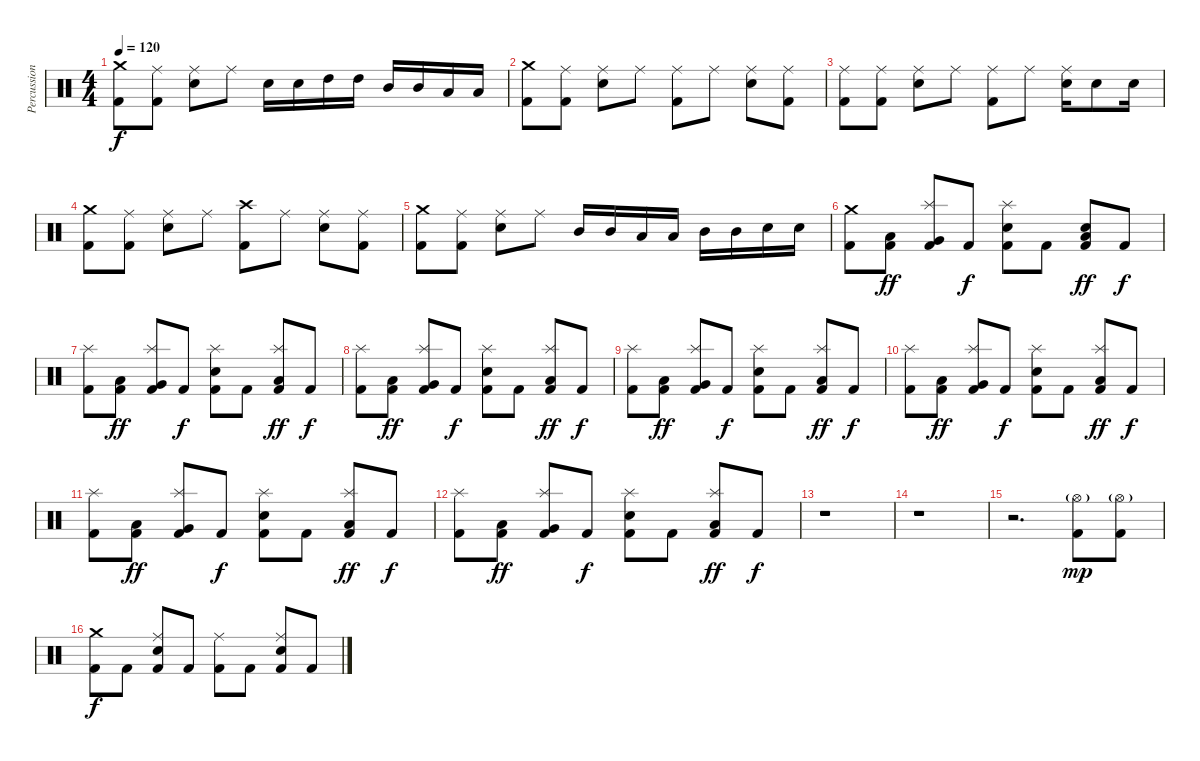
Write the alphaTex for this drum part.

\track ("Percussions" "Percussion") {instrument percussion}
\staff {score}
\articulation defaults
\ts (4 4)
\tempo 120
\clef neutral
\ks c
("Crash medium (hit)" "Kick (hit) 2").8{dy f} ("Ride (middle)" "Kick (hit) 2").8 ("Ride (middle)" "Electric Snare (hit)").8 "Ride (middle)".8 "Electric Snare (hit)".16 "Electric Snare (hit)".16 "High Tom (hit)".16 "High Tom (hit)".16 "Mid Tom (hit)".16 "Mid Tom (hit)".16 "Low Tom (hit)".16 "Low Tom (hit)".16 |
("Crash medium (hit)" "Kick (hit) 2").8 ("Ride (middle)" "Kick (hit) 2").8 ("Ride (middle)" "Electric Snare (hit)").8 "Ride (middle)".8 ("Ride (middle)" "Kick (hit) 2").8 "Ride (middle)".8 ("Ride (middle)" "Electric Snare (hit)").8 ("Ride (middle)" "Kick (hit) 2").8 |
("Ride (middle)" "Kick (hit) 2").8 ("Ride (middle)" "Kick (hit) 2").8 ("Ride (middle)" "Electric Snare (hit)").8 "Ride (middle)".8 ("Ride (middle)" "Kick (hit) 2").8 "Ride (middle)".8 ("Ride (middle)" "Electric Snare (hit)").16 "Electric Snare (hit)".8 "Electric Snare (hit)".16 |
("Crash medium (hit)" "Kick (hit) 2").8 ("Ride (middle)" "Kick (hit) 2").8 ("Ride (middle)" "Electric Snare (hit)").8 "Ride (middle)".8 ("Crash high (hit)" "Kick (hit) 2").8 "Ride (middle)".8 ("Ride (middle)" "Electric Snare (hit)").8 ("Ride (middle)" "Kick (hit) 2").8 |
("Crash medium (hit)" "Kick (hit) 2").8 ("Ride (middle)" "Kick (hit) 2").8 ("Ride (middle)" "Electric Snare (hit)").8 "Ride (middle)".8 "Mid Tom (hit)".16 "Mid Tom (hit)".16 "Low Tom (hit)".16 "Low Tom (hit)".16 "Mid Tom (hit)".16 "Mid Tom (hit)".16 "Electric Snare (hit)".16 "Electric Snare (hit)".16 |
("Crash medium (hit)" "Kick (hit) 2").8 ("Low Tom (hit)" "Kick (hit) 2").8{dy ff} ("Splash (hit)" "Very Low Tom (hit)" "Kick (hit) 2").8 "Kick (hit) 2".8{dy f} ("Splash (hit)" "Electric Snare (hit)" "Kick (hit) 2").8 "Kick (hit) 2".8 ("Snare (hit)" "Low Floor Tom (hit)" "Kick (hit) 2").8{dy ff} "Kick (hit) 2".8{dy f} |
("Splash (hit)" "Kick (hit) 2").8 ("Low Tom (hit)" "Kick (hit) 2").8{dy ff} ("Splash (hit)" "Very Low Tom (hit)" "Kick (hit) 2").8 "Kick (hit) 2".8{dy f} ("Splash (hit)" "Electric Snare (hit)" "Kick (hit) 2").8 "Kick (hit) 2".8 ("Splash (hit)" "Low Floor Tom (hit)" "Kick (hit) 2").8{dy ff} "Kick (hit) 2".8{dy f} |
("Splash (hit)" "Kick (hit) 2").8 ("Low Tom (hit)" "Kick (hit) 2").8{dy ff} ("Splash (hit)" "Very Low Tom (hit)" "Kick (hit) 2").8 "Kick (hit) 2".8{dy f} ("Splash (hit)" "Electric Snare (hit)" "Kick (hit) 2").8 "Kick (hit) 2".8 ("Splash (hit)" "Low Floor Tom (hit)" "Kick (hit) 2").8{dy ff} "Kick (hit) 2".8{dy f} |
("Splash (hit)" "Kick (hit) 2").8 ("Low Tom (hit)" "Kick (hit) 2").8{dy ff} ("Splash (hit)" "Very Low Tom (hit)" "Kick (hit) 2").8 "Kick (hit) 2".8{dy f} ("Splash (hit)" "Electric Snare (hit)" "Kick (hit) 2").8 "Kick (hit) 2".8 ("Splash (hit)" "Low Floor Tom (hit)" "Kick (hit) 2").8{dy ff} "Kick (hit) 2".8{dy f} |
("Splash (hit)" "Kick (hit) 2").8 ("Low Tom (hit)" "Kick (hit) 2").8{dy ff} ("Splash (hit)" "Very Low Tom (hit)" "Kick (hit) 2").8 "Kick (hit) 2".8{dy f} ("Splash (hit)" "Electric Snare (hit)" "Kick (hit) 2").8 "Kick (hit) 2".8 ("Splash (hit)" "Low Floor Tom (hit)" "Kick (hit) 2").8{dy ff} "Kick (hit) 2".8{dy f} |
("Splash (hit)" "Kick (hit) 2").8 ("Low Tom (hit)" "Kick (hit) 2").8{dy ff} ("Splash (hit)" "Very Low Tom (hit)" "Kick (hit) 2").8 "Kick (hit) 2".8{dy f} ("Splash (hit)" "Electric Snare (hit)" "Kick (hit) 2").8 "Kick (hit) 2".8 ("Splash (hit)" "Low Floor Tom (hit)" "Kick (hit) 2").8{dy ff} "Kick (hit) 2".8{dy f} |
("Splash (hit)" "Kick (hit) 2").8 ("Low Tom (hit)" "Kick (hit) 2").8{dy ff} ("Splash (hit)" "Very Low Tom (hit)" "Kick (hit) 2").8 "Kick (hit) 2".8{dy f} ("Splash (hit)" "Electric Snare (hit)" "Kick (hit) 2").8 "Kick (hit) 2".8 ("Splash (hit)" "Low Floor Tom (hit)" "Kick (hit) 2").8{dy ff} "Kick (hit) 2".8{dy f} |
r.1 |
r.1 |
r.2{d} ("Hi-Hat (open)"{g} "Kick (hit) 2").8{dy mp} ("Hi-Hat (open)"{g} "Kick (hit) 2").8 |
("Crash medium (hit)" "Kick (hit) 2").8{dy f volume 15} "Kick (hit) 2".8 ("Ride (middle)" "Electric Snare (hit)" "Kick (hit) 2").8 "Kick (hit) 2".8 ("Ride (middle)" "Kick (hit) 2").8 "Kick (hit) 2".8 ("Ride (middle)" "Electric Snare (hit)" "Kick (hit) 2").8 "Kick (hit) 2".8
